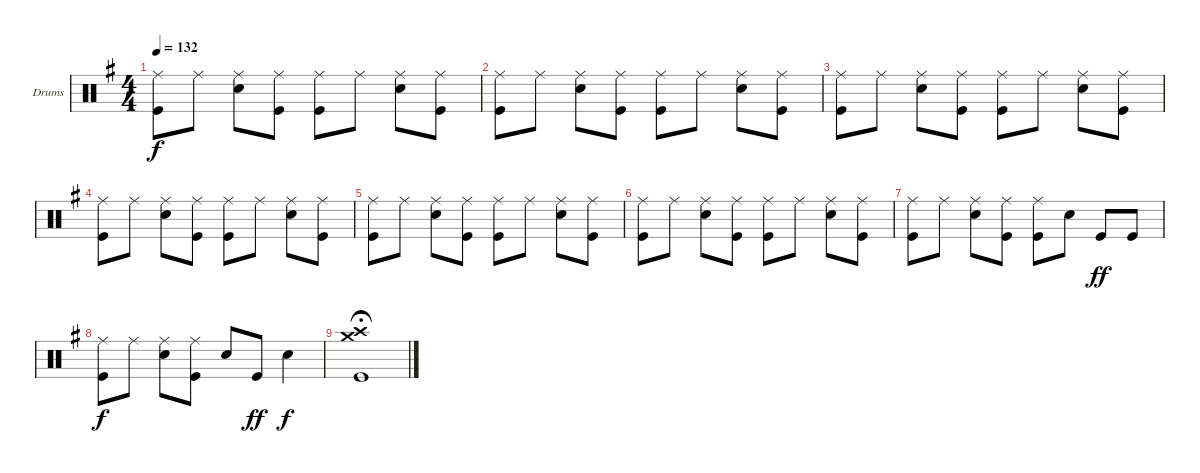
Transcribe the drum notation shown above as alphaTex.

\defaultSystemsLayout 4
\bracketExtendMode groupsimilarinstruments
\firstSystemTrackNameOrientation horizontal
\otherSystemsTrackNameOrientation horizontal
\track ("Drumkit" "Drums") {instrument percussion}
\staff {score}
\articulation defaults
\ts (4 4)
\tempo 132
\clef neutral
\scale
0.957125
\ks g
("Ride (middle)" "Kick (hit)").8{dy f} "Ride (middle)".8 ("Ride (middle)" "Snare (hit) 2").8 ("Ride (middle)" "Kick (hit)").8 ("Ride (middle)" "Kick (hit)").8 "Ride (middle)".8 ("Ride (middle)" "Snare (hit) 2").8 ("Ride (middle)" "Kick (hit)").8 |
\scale
1.08575 ("Ride (middle)" "Kick (hit)").8 "Ride (middle)".8 ("Ride (middle)" "Snare (hit) 2").8 ("Ride (middle)" "Kick (hit)").8 ("Ride (middle)" "Kick (hit)").8 "Ride (middle)".8 ("Ride (middle)" "Snare (hit) 2").8 ("Ride (middle)" "Kick (hit)").8 |
\scale
0.957125 ("Ride (middle)" "Kick (hit)").8 "Ride (middle)".8 ("Ride (middle)" "Snare (hit) 2").8 ("Ride (middle)" "Kick (hit)").8 ("Ride (middle)" "Kick (hit)").8 "Ride (middle)".8 ("Ride (middle)" "Snare (hit) 2").8 ("Ride (middle)" "Kick (hit)").8 |
\scale
0.957125 ("Ride (middle)" "Kick (hit)").8 "Ride (middle)".8 ("Ride (middle)" "Snare (hit) 2").8 ("Ride (middle)" "Kick (hit)").8 ("Ride (middle)" "Kick (hit)").8 "Ride (middle)".8 ("Ride (middle)" "Snare (hit) 2").8 ("Ride (middle)" "Kick (hit)").8 |
\scale
1.08575 ("Ride (middle)" "Kick (hit)").8 "Ride (middle)".8 ("Ride (middle)" "Snare (hit) 2").8 ("Ride (middle)" "Kick (hit)").8 ("Ride (middle)" "Kick (hit)").8 "Ride (middle)".8 ("Ride (middle)" "Snare (hit) 2").8 ("Ride (middle)" "Kick (hit)").8 |
\scale
0.957125 ("Ride (middle)" "Kick (hit)").8 "Ride (middle)".8 ("Ride (middle)" "Snare (hit) 2").8 ("Ride (middle)" "Kick (hit)").8 ("Ride (middle)" "Kick (hit)").8 "Ride (middle)".8 ("Ride (middle)" "Snare (hit) 2").8 ("Ride (middle)" "Kick (hit)").8 |
\scale
0.957125 ("Ride (middle)" "Kick (hit)").8 "Ride (middle)".8 ("Ride (middle)" "Snare (hit) 2").8 ("Ride (middle)" "Kick (hit)").8 ("Ride (middle)" "Kick (hit)").8 "Snare (hit) 2".8 "Kick (hit)".8{dy ff} "Kick (hit)".8 |
\scale
1.04288 ("Ride (middle)" "Kick (hit)").8{dy f} "Ride (middle)".8 ("Ride (middle)" "Snare (hit) 2").8 ("Ride (middle)" "Kick (hit)").8 "Snare (hit) 2".8 "Kick (hit)".8{dy ff} "Snare (hit) 2".4{dy f} |
\scale
0.957125 ("Crash medium (hit)" "Crash high (hit)" "Kick (hit)").1{fermata (medium 0.65)}
